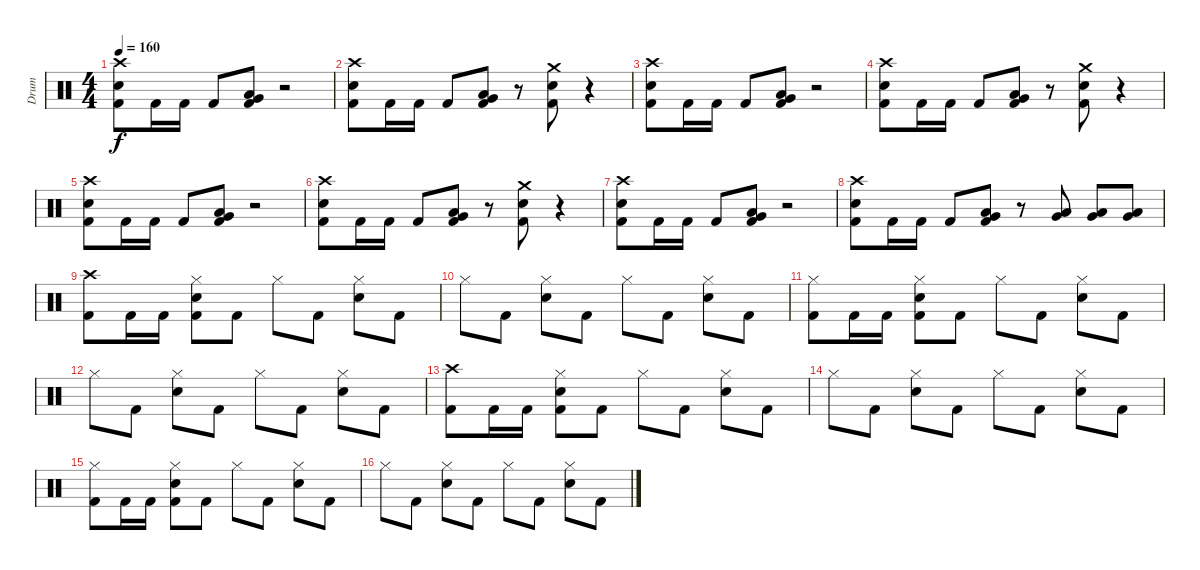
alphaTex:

\track ("Drum" "Drum") {instrument percussion}
\staff {score}
\articulation defaults
\ts (4 4)
\tempo 160
\clef neutral
\ks c
("Crash high (hit)" "Electric Snare (hit)" "Kick (hit) 2").8{dy f} "Kick (hit) 2".16 "Kick (hit) 2".16 "Kick (hit) 2".8 ("Low Tom (hit)" "Very Low Tom (hit)" "Kick (hit) 2").8 r.2 |
("Crash high (hit)" "Electric Snare (hit)" "Kick (hit) 2").8 "Kick (hit) 2".16 "Kick (hit) 2".16 "Kick (hit) 2".8 ("Low Tom (hit)" "Very Low Tom (hit)" "Kick (hit) 2").8 r.8 ("Crash medium (hit)" "Electric Snare (hit)" "Kick (hit) 2").8 r.4 |
("Crash high (hit)" "Electric Snare (hit)" "Kick (hit) 2").8 "Kick (hit) 2".16 "Kick (hit) 2".16 "Kick (hit) 2".8 ("Low Tom (hit)" "Very Low Tom (hit)" "Kick (hit) 2").8 r.2 |
("Crash high (hit)" "Electric Snare (hit)" "Kick (hit) 2").8 "Kick (hit) 2".16 "Kick (hit) 2".16 "Kick (hit) 2".8 ("Low Tom (hit)" "Very Low Tom (hit)" "Kick (hit) 2").8 r.8 ("Crash medium (hit)" "Electric Snare (hit)" "Kick (hit) 2").8 r.4 |
("Crash high (hit)" "Electric Snare (hit)" "Kick (hit) 2").8 "Kick (hit) 2".16 "Kick (hit) 2".16 "Kick (hit) 2".8 ("Low Tom (hit)" "Very Low Tom (hit)" "Kick (hit) 2").8 r.2 |
("Crash high (hit)" "Electric Snare (hit)" "Kick (hit) 2").8 "Kick (hit) 2".16 "Kick (hit) 2".16 "Kick (hit) 2".8 ("Low Tom (hit)" "Very Low Tom (hit)" "Kick (hit) 2").8 r.8 ("Crash medium (hit)" "Electric Snare (hit)" "Kick (hit) 2").8 r.4 |
("Crash high (hit)" "Electric Snare (hit)" "Kick (hit) 2").8 "Kick (hit) 2".16 "Kick (hit) 2".16 "Kick (hit) 2".8 ("Low Tom (hit)" "Very Low Tom (hit)" "Kick (hit) 2").8 r.2 |
("Crash high (hit)" "Electric Snare (hit)" "Kick (hit) 2").8 "Kick (hit) 2".16 "Kick (hit) 2".16 "Kick (hit) 2".8 ("Low Tom (hit)" "Very Low Tom (hit)" "Kick (hit) 2").8 r.8 ("Low Tom (hit)" "Very Low Tom (hit)").8 ("Low Tom (hit)" "Very Low Tom (hit)").8 ("Low Tom (hit)" "Very Low Tom (hit)").8 |
("Crash high (hit)" "Kick (hit) 2").8 "Kick (hit) 2".16 "Kick (hit) 2".16 ("Hi-Hat (closed)" "Electric Snare (hit)" "Kick (hit) 2").8 "Kick (hit) 2".8 "Hi-Hat (closed)".8 "Kick (hit) 2".8 ("Hi-Hat (closed)" "Electric Snare (hit)").8 "Kick (hit) 2".8 |
"Hi-Hat (closed)".8 "Kick (hit) 2".8 ("Hi-Hat (closed)" "Electric Snare (hit)").8 "Kick (hit) 2".8 "Hi-Hat (closed)".8 "Kick (hit) 2".8 ("Hi-Hat (closed)" "Electric Snare (hit)").8 "Kick (hit) 2".8 |
("Hi-Hat (closed)" "Kick (hit) 2").8 "Kick (hit) 2".16 "Kick (hit) 2".16 ("Hi-Hat (closed)" "Electric Snare (hit)" "Kick (hit) 2").8 "Kick (hit) 2".8 "Hi-Hat (closed)".8 "Kick (hit) 2".8 ("Hi-Hat (closed)" "Electric Snare (hit)").8 "Kick (hit) 2".8 |
"Hi-Hat (closed)".8 "Kick (hit) 2".8 ("Hi-Hat (closed)" "Electric Snare (hit)").8 "Kick (hit) 2".8 "Hi-Hat (closed)".8 "Kick (hit) 2".8 ("Hi-Hat (closed)" "Electric Snare (hit)").8 "Kick (hit) 2".8 |
("Crash high (hit)" "Kick (hit) 2").8 "Kick (hit) 2".16 "Kick (hit) 2".16 ("Hi-Hat (closed)" "Electric Snare (hit)" "Kick (hit) 2").8 "Kick (hit) 2".8 "Hi-Hat (closed)".8 "Kick (hit) 2".8 ("Hi-Hat (closed)" "Electric Snare (hit)").8 "Kick (hit) 2".8 |
"Hi-Hat (closed)".8 "Kick (hit) 2".8 ("Hi-Hat (closed)" "Electric Snare (hit)").8 "Kick (hit) 2".8 "Hi-Hat (closed)".8 "Kick (hit) 2".8 ("Hi-Hat (closed)" "Electric Snare (hit)").8 "Kick (hit) 2".8 |
("Hi-Hat (closed)" "Kick (hit) 2").8 "Kick (hit) 2".16 "Kick (hit) 2".16 ("Hi-Hat (closed)" "Electric Snare (hit)" "Kick (hit) 2").8 "Kick (hit) 2".8 "Hi-Hat (closed)".8 "Kick (hit) 2".8 ("Hi-Hat (closed)" "Electric Snare (hit)").8 "Kick (hit) 2".8 |
"Hi-Hat (closed)".8 "Kick (hit) 2".8 ("Hi-Hat (closed)" "Electric Snare (hit)").8 "Kick (hit) 2".8 "Hi-Hat (closed)".8 "Kick (hit) 2".8 ("Hi-Hat (closed)" "Electric Snare (hit)").8 "Kick (hit) 2".8
